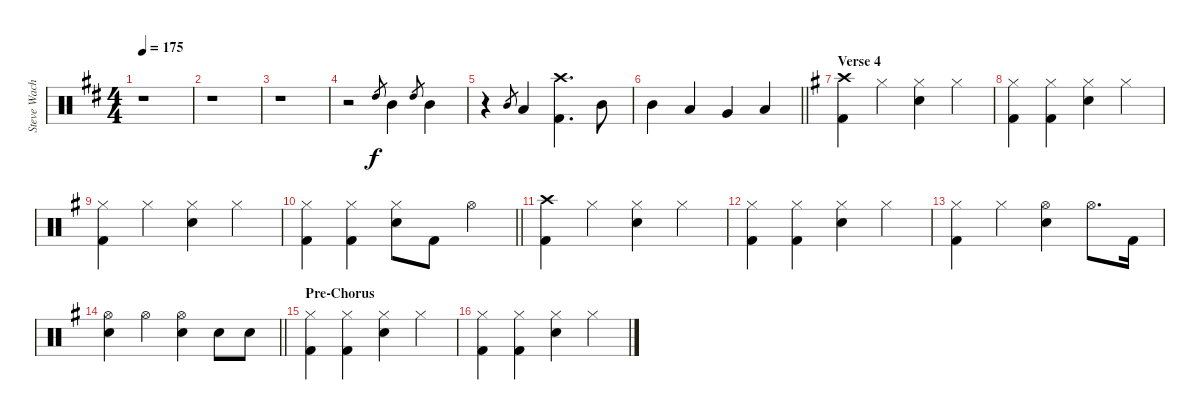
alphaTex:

\track ("Steve Wacholz" "Steve Wach") {instrument percussion}
\staff {score}
\articulation defaults
\ts (4 4)
\tempo 175
\clef neutral
\ks bminor
r.1{dy f} |
r.1 |
r.1 |
r.2 "High Tom (hit)".8{gr} "Mid Tom (hit)".4 "High Tom (hit)".8{gr} "Mid Tom (hit)".4 |
r.4 "Mid Tom (hit)".8{gr} "Low Tom (hit)".4 ("Crash high (hit)" "Kick (hit) 2").4{d} "Mid Tom (hit)".8 |
\barLineRight lightlight "Mid Tom (hit)".4 "Low Tom (hit)".4 "Very Low Tom (hit)".4 "Low Floor Tom (hit)".4
|
\section ("" "Verse 4")
\ks eminor
("Crash high (hit)" "Kick (hit) 2").4 "Hi-Hat (closed)".4 ("Hi-Hat (closed)" "Electric Snare (hit)").4 "Hi-Hat (closed)".4 |
("Hi-Hat (closed)" "Kick (hit) 2").4 ("Hi-Hat (closed)" "Kick (hit) 2").4 ("Hi-Hat (closed)" "Electric Snare (hit)").4 "Hi-Hat (closed)".4 |
("Hi-Hat (closed)" "Kick (hit) 2").4 "Hi-Hat (closed)".4 ("Hi-Hat (closed)" "Electric Snare (hit)").4 "Hi-Hat (closed)".4 |
\barLineRight lightlight
("Hi-Hat (closed)" "Kick (hit) 2").4 ("Hi-Hat (closed)" "Kick (hit) 2").4 ("Hi-Hat (closed)" "Electric Snare (hit)").8 "Kick (hit) 2".8 "Hi-Hat (open)".4 |
("Crash high (hit)" "Kick (hit) 2").4 "Hi-Hat (closed)".4 ("Hi-Hat (closed)" "Electric Snare (hit)").4 "Hi-Hat (closed)".4 |
("Hi-Hat (closed)" "Kick (hit) 2").4 ("Hi-Hat (closed)" "Kick (hit) 2").4 ("Hi-Hat (closed)" "Electric Snare (hit)").4 "Hi-Hat (closed)".4 |
("Hi-Hat (closed)" "Kick (hit) 2").4 "Hi-Hat (closed)".4 ("Hi-Hat (open)" "Electric Snare (hit)").4 "Hi-Hat (open)".8{d} "Kick (hit) 2".16 |
\barLineRight lightlight
("Hi-Hat (open)" "Electric Snare (hit)").4 "Hi-Hat (open)".4 ("Hi-Hat (open)" "Electric Snare (hit)").4 "Electric Snare (hit)".8 "Electric Snare (hit)".8 |
\section ("" "Pre-Chorus")
("Hi-Hat (closed)" "Kick (hit) 2").4 ("Hi-Hat (closed)" "Kick (hit) 2").4 ("Hi-Hat (closed)" "Electric Snare (hit)").4 "Hi-Hat (closed)".4 |
("Hi-Hat (closed)" "Kick (hit) 2").4 ("Hi-Hat (closed)" "Kick (hit) 2").4 ("Hi-Hat (closed)" "Electric Snare (hit)").4 "Hi-Hat (closed)".4
